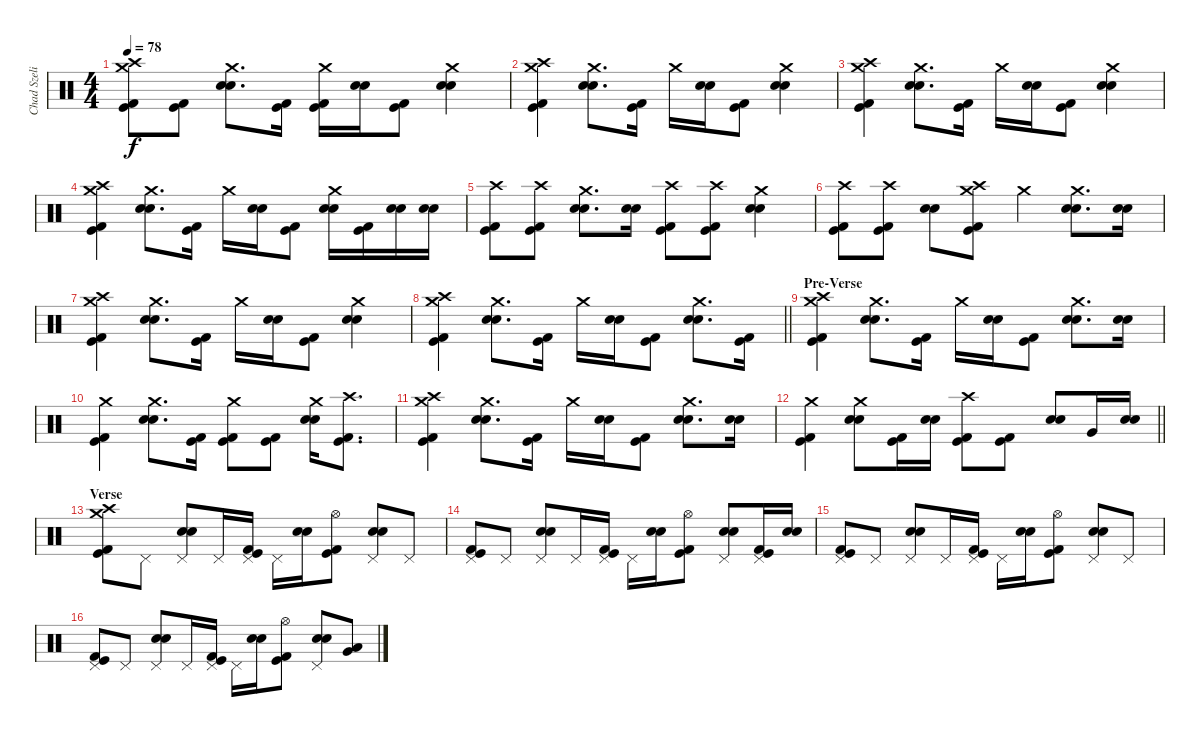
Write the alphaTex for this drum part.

\track ("Chad Szeliga" "Chad Szeli") {instrument percussion}
\staff {score}
\articulation defaults
\ts (4 4)
\tempo 78
\clef neutral
\ks c
("Crash high (hit)" "Kick (hit) 2" "Kick (hit)" "Crash medium (hit)").8{dy f} ("Kick (hit) 2" "Kick (hit)").8 ("Crash medium (hit)" "Snare (hit) 2" "Snare (hit) 2").8{d} ("Kick (hit) 2" "Kick (hit)").16 ("Crash medium (hit)" "Kick (hit) 2" "Kick (hit)").16 ("Snare (hit) 2" "Snare (hit) 2").16 ("Kick (hit) 2" "Kick (hit)").8 ("Crash medium (hit)" "Snare (hit) 2" "Snare (hit) 2").4 |
("Crash high (hit)" "Kick (hit) 2" "Kick (hit)" "Crash medium (hit)").4 ("Crash medium (hit)" "Snare (hit) 2" "Snare (hit) 2").8{d} ("Kick (hit) 2" "Kick (hit)").16 "Crash medium (hit)".16 ("Snare (hit) 2" "Snare (hit) 2").16 ("Kick (hit) 2" "Kick (hit)").8 ("Crash medium (hit)" "Snare (hit) 2" "Snare (hit) 2").4 |
("Crash high (hit)" "Kick (hit) 2" "Kick (hit)" "Crash medium (hit)").4 ("Crash medium (hit)" "Snare (hit) 2" "Snare (hit) 2").8{d} ("Kick (hit) 2" "Kick (hit)").16 "Crash medium (hit)".16 ("Snare (hit) 2" "Snare (hit) 2").16 ("Kick (hit) 2" "Kick (hit)").8 ("Crash medium (hit)" "Snare (hit) 2" "Snare (hit) 2").4 |
("Crash high (hit)" "Kick (hit) 2" "Kick (hit)" "Crash medium (hit)").4 ("Crash medium (hit)" "Snare (hit) 2" "Snare (hit) 2").8{d} ("Kick (hit) 2" "Kick (hit)").16 "Crash medium (hit)".16 ("Snare (hit) 2" "Snare (hit) 2").16 ("Kick (hit) 2" "Kick (hit)").8 ("Crash medium (hit)" "Snare (hit) 2" "Snare (hit) 2").16 ("Kick (hit) 2" "Kick (hit)").16 ("Snare (hit) 2" "Snare (hit) 2").16 ("Snare (hit) 2" "Snare (hit) 2").16 |
("Crash high (hit)" "Kick (hit) 2" "Kick (hit)").8 ("Crash high (hit)" "Kick (hit) 2" "Kick (hit)").8 ("Crash medium (hit)" "Snare (hit) 2" "Snare (hit) 2").8{d} ("Snare (hit) 2" "Snare (hit) 2").16 ("Crash high (hit)" "Kick (hit) 2" "Kick (hit)").8 ("Crash high (hit)" "Kick (hit) 2" "Kick (hit)").8 ("Crash medium (hit)" "Snare (hit) 2" "Snare (hit) 2").4 |
("Crash high (hit)" "Kick (hit) 2" "Kick (hit)").8 ("Crash high (hit)" "Kick (hit) 2" "Kick (hit)").8 ("Snare (hit) 2" "Snare (hit) 2").8 ("Crash high (hit)" "Kick (hit) 2" "Kick (hit)" "Crash medium (hit)").8 "Crash medium (hit)".4 ("Crash medium (hit)" "Snare (hit) 2" "Snare (hit) 2").8{d} ("Snare (hit) 2" "Snare (hit) 2").16 |
("Crash high (hit)" "Kick (hit) 2" "Kick (hit)" "Crash medium (hit)").4 ("Crash medium (hit)" "Snare (hit) 2" "Snare (hit) 2").8{d} ("Kick (hit) 2" "Kick (hit)").16 "Crash medium (hit)".16 ("Snare (hit) 2" "Snare (hit) 2").16 ("Kick (hit) 2" "Kick (hit)").8 ("Crash medium (hit)" "Snare (hit) 2" "Snare (hit) 2").4 |
\barLineRight lightlight
("Crash high (hit)" "Kick (hit) 2" "Kick (hit)" "Crash medium (hit)").4 ("Crash medium (hit)" "Snare (hit) 2" "Snare (hit) 2").8{d} ("Kick (hit) 2" "Kick (hit)").16 "Crash medium (hit)".16 ("Snare (hit) 2" "Snare (hit) 2").16 ("Kick (hit) 2" "Kick (hit)").8 ("Crash medium (hit)" "Snare (hit) 2" "Snare (hit) 2").8{d} ("Kick (hit) 2" "Kick (hit)").16 |
\section ("" "Pre-Verse")
("Crash high (hit)" "Kick (hit) 2" "Kick (hit)" "Crash medium (hit)").4 ("Crash medium (hit)" "Snare (hit) 2" "Snare (hit) 2").8{d} ("Kick (hit) 2" "Kick (hit)").16 "Crash medium (hit)".16 ("Snare (hit) 2" "Snare (hit) 2").16 ("Kick (hit) 2" "Kick (hit)").8 ("Crash medium (hit)" "Snare (hit) 2" "Snare (hit) 2").8{d} ("Snare (hit) 2" "Snare (hit) 2").16 |
("Crash medium (hit)" "Kick (hit) 2" "Kick (hit)").4 ("Crash medium (hit)" "Snare (hit) 2" "Snare (hit) 2").8{d} ("Kick (hit) 2" "Kick (hit)").16 ("Crash medium (hit)" "Kick (hit) 2" "Kick (hit)").8 ("Kick (hit) 2" "Kick (hit)").8 ("Crash medium (hit)" "Snare (hit) 2" "Snare (hit) 2").16 ("Crash high (hit)" "Kick (hit) 2" "Kick (hit)").8{d} |
("Crash high (hit)" "Kick (hit) 2" "Kick (hit)" "Crash medium (hit)").4 ("Crash medium (hit)" "Snare (hit) 2" "Snare (hit) 2").8{d} ("Kick (hit) 2" "Kick (hit)").16 "Crash medium (hit)".16 ("Snare (hit) 2" "Snare (hit) 2").16 ("Kick (hit) 2" "Kick (hit)").8 ("Crash medium (hit)" "Snare (hit) 2" "Snare (hit) 2").8{d} ("Snare (hit) 2" "Snare (hit) 2").16 |
\barLineRight lightlight
("Crash medium (hit)" "Kick (hit) 2" "Kick (hit)").4 ("Crash medium (hit)" "Snare (hit) 2" "Snare (hit) 2").8 ("Kick (hit) 2" "Kick (hit)").16 ("Snare (hit) 2" "Snare (hit) 2").16 ("Crash high (hit)" "Kick (hit) 2" "Kick (hit)").8 ("Kick (hit) 2" "Kick (hit)").8 ("Snare (hit) 2" "Snare (hit) 2").8 "Very Low Tom (hit)".16 ("Snare (hit) 2" "Snare (hit) 2").16 |
\section ("" "Verse")
("Crash high (hit)" "Kick (hit) 2" "Kick (hit)" "Crash medium (hit)").8 "Pedal Hi-Hat (hit)".8 ("Snare (hit) 2" "Snare (hit) 2" "Pedal Hi-Hat (hit)").8 "Pedal Hi-Hat (hit)".16 ("Kick (hit) 2" "Kick (hit)" "Pedal Hi-Hat (hit)").16 "Pedal Hi-Hat (hit)".16 ("Snare (hit) 2" "Snare (hit) 2").16 ("Kick (hit) 2" "Kick (hit)" "Hi-Hat (open)").8 ("Snare (hit) 2" "Snare (hit) 2" "Pedal Hi-Hat (hit)").8 "Pedal Hi-Hat (hit)".8 |
("Kick (hit) 2" "Kick (hit)" "Pedal Hi-Hat (hit)").8 "Pedal Hi-Hat (hit)".8 ("Snare (hit) 2" "Snare (hit) 2" "Pedal Hi-Hat (hit)").8 "Pedal Hi-Hat (hit)".16 ("Kick (hit) 2" "Kick (hit)" "Pedal Hi-Hat (hit)").16 "Pedal Hi-Hat (hit)".16 ("Snare (hit) 2" "Snare (hit) 2").16 ("Kick (hit) 2" "Kick (hit)" "Hi-Hat (open)").8 ("Snare (hit) 2" "Snare (hit) 2" "Pedal Hi-Hat (hit)").8 ("Kick (hit) 2" "Kick (hit)" "Pedal Hi-Hat (hit)").16 ("Snare (hit) 2" "Snare (hit) 2").16 |
("Kick (hit) 2" "Kick (hit)" "Pedal Hi-Hat (hit)").8 "Pedal Hi-Hat (hit)".8 ("Snare (hit) 2" "Snare (hit) 2" "Pedal Hi-Hat (hit)").8 "Pedal Hi-Hat (hit)".16 ("Kick (hit) 2" "Kick (hit)" "Pedal Hi-Hat (hit)").16 "Pedal Hi-Hat (hit)".16 ("Snare (hit) 2" "Snare (hit) 2").16 ("Kick (hit) 2" "Kick (hit)" "Hi-Hat (open)").8 ("Snare (hit) 2" "Snare (hit) 2" "Pedal Hi-Hat (hit)").8 "Pedal Hi-Hat (hit)".8 |
("Kick (hit) 2" "Kick (hit)" "Pedal Hi-Hat (hit)").8 "Pedal Hi-Hat (hit)".8 ("Snare (hit) 2" "Snare (hit) 2" "Pedal Hi-Hat (hit)").8 "Pedal Hi-Hat (hit)".16 ("Kick (hit) 2" "Kick (hit)" "Pedal Hi-Hat (hit)").16 "Pedal Hi-Hat (hit)".16 ("Snare (hit) 2" "Snare (hit) 2").16 ("Kick (hit) 2" "Kick (hit)" "Hi-Hat (open)").8 ("Snare (hit) 2" "Snare (hit) 2" "Pedal Hi-Hat (hit)").8 ("Very Low Tom (hit)" "Low Tom (hit)").8
